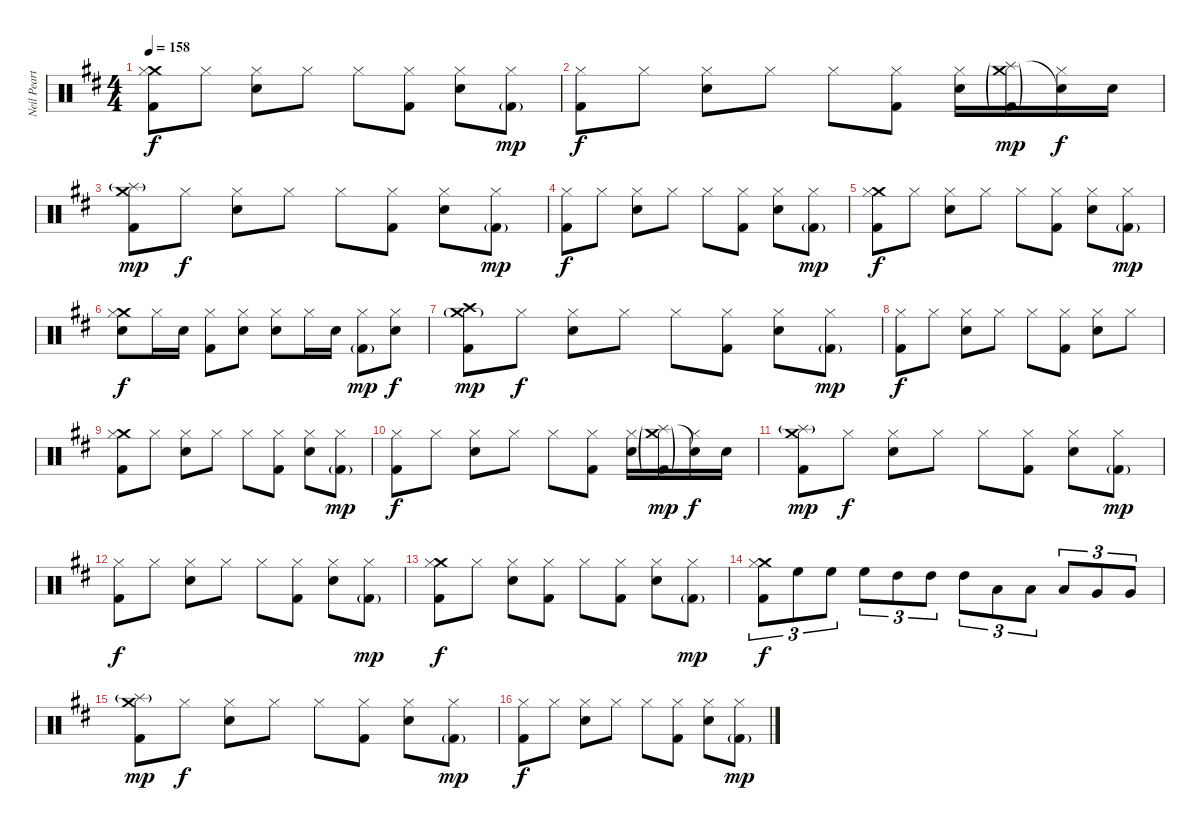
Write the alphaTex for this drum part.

\track ("Neil Peart (drums)" "Neil Peart") {instrument percussion}
\staff {score}
\articulation defaults
\ts (4 4)
\tempo 158
\clef neutral
\ks bminor
("Crash medium (hit)" "Hi-Hat (closed)" "Kick (hit) 2").8{dy f} "Hi-Hat (closed)".8 ("Hi-Hat (closed)" "Electric Snare (hit)").8 "Hi-Hat (closed)".8 "Hi-Hat (closed)".8 ("Hi-Hat (closed)" "Kick (hit) 2").8 ("Hi-Hat (closed)" "Electric Snare (hit)").8 ("Hi-Hat (closed)" "Kick (hit) 2"{g}).8{dy mp} |
("Hi-Hat (closed)" "Kick (hit) 2").8{dy f} "Hi-Hat (closed)".8 ("Hi-Hat (closed)" "Electric Snare (hit)").8 "Hi-Hat (closed)".8 "Hi-Hat (closed)".8 ("Hi-Hat (closed)" "Kick (hit) 2").8 ("Hi-Hat (closed)" "Electric Snare (hit)").16 ("Crash medium (hit)"{g} "Splash (hit)"{g} "Kick (hit) 2"{g}).16{dy mp} ("Hi-Hat (closed)" "Snare (hit)"{t}).16{dy f} "Electric Snare (hit)".16 |
("Crash medium (hit)" "Splash (hit)"{g} "Kick (hit) 2").8{dy mp} "Hi-Hat (closed)".8{dy f} ("Hi-Hat (closed)" "Electric Snare (hit)").8 "Hi-Hat (closed)".8 "Hi-Hat (closed)".8 ("Hi-Hat (closed)" "Kick (hit) 2").8 ("Hi-Hat (closed)" "Electric Snare (hit)").8 ("Hi-Hat (closed)" "Kick (hit) 2"{g}).8{dy mp} |
("Hi-Hat (closed)" "Kick (hit) 2").8{dy f} "Hi-Hat (closed)".8 ("Hi-Hat (closed)" "Electric Snare (hit)").8 "Hi-Hat (closed)".8 "Hi-Hat (closed)".8 ("Hi-Hat (closed)" "Kick (hit) 2").8 ("Hi-Hat (closed)" "Electric Snare (hit)").8 ("Hi-Hat (closed)" "Kick (hit) 2"{g}).8{dy mp} |
("Crash medium (hit)" "Hi-Hat (closed)" "Kick (hit) 2").8{dy f} "Hi-Hat (closed)".8 ("Hi-Hat (closed)" "Electric Snare (hit)").8 "Hi-Hat (closed)".8 "Hi-Hat (closed)".8 ("Hi-Hat (closed)" "Kick (hit) 2").8 ("Hi-Hat (closed)" "Electric Snare (hit)").8 ("Hi-Hat (closed)" "Kick (hit) 2"{g}).8{dy mp} |
("Crash medium (hit)" "Hi-Hat (closed)" "Electric Snare (hit)").8{dy f} "Hi-Hat (closed)".16 "Electric Snare (hit)".16 ("Hi-Hat (closed)" "Kick (hit) 2").8 ("Hi-Hat (closed)" "Electric Snare (hit)").8 ("Hi-Hat (closed)" "Electric Snare (hit)").8 "Hi-Hat (closed)".16 "Electric Snare (hit)".16 ("Hi-Hat (closed)" "Kick (hit) 2"{g}).8{dy mp} ("Hi-Hat (closed)" "Electric Snare (hit)").8{dy f} |
("Crash medium (hit)"{g} "Crash high (hit)" "Kick (hit) 2").8{dy mp} "Hi-Hat (closed)".8{dy f} ("Hi-Hat (closed)" "Electric Snare (hit)").8 "Hi-Hat (closed)".8 "Hi-Hat (closed)".8 ("Hi-Hat (closed)" "Kick (hit) 2").8 ("Hi-Hat (closed)" "Electric Snare (hit)").8 ("Hi-Hat (closed)" "Kick (hit) 2"{g}).8{dy mp} |
("Hi-Hat (closed)" "Kick (hit) 2").8{dy f} "Hi-Hat (closed)".8 ("Hi-Hat (closed)" "Electric Snare (hit)").8 "Hi-Hat (closed)".8 "Hi-Hat (closed)".8 ("Hi-Hat (closed)" "Kick (hit) 2").8 ("Hi-Hat (closed)" "Electric Snare (hit)").8 "Hi-Hat (closed)".8 |
("Crash medium (hit)" "Hi-Hat (closed)" "Kick (hit) 2").8 "Hi-Hat (closed)".8 ("Hi-Hat (closed)" "Electric Snare (hit)").8 "Hi-Hat (closed)".8 "Hi-Hat (closed)".8 ("Hi-Hat (closed)" "Kick (hit) 2").8 ("Hi-Hat (closed)" "Electric Snare (hit)").8 ("Hi-Hat (closed)" "Kick (hit) 2"{g}).8{dy mp} |
("Hi-Hat (closed)" "Kick (hit) 2").8{dy f} "Hi-Hat (closed)".8 ("Hi-Hat (closed)" "Electric Snare (hit)").8 "Hi-Hat (closed)".8 "Hi-Hat (closed)".8 ("Hi-Hat (closed)" "Kick (hit) 2").8 ("Hi-Hat (closed)" "Electric Snare (hit)").16 ("Crash medium (hit)"{g} "Splash (hit)"{g} "Kick (hit) 2"{g}).16{dy mp} ("Hi-Hat (closed)" "Snare (hit)"{t}).16{dy f} "Electric Snare (hit)".16 |
("Crash medium (hit)" "Splash (hit)"{g} "Kick (hit) 2").8{dy mp} "Hi-Hat (closed)".8{dy f} ("Hi-Hat (closed)" "Electric Snare (hit)").8 "Hi-Hat (closed)".8 "Hi-Hat (closed)".8 ("Hi-Hat (closed)" "Kick (hit) 2").8 ("Hi-Hat (closed)" "Electric Snare (hit)").8 ("Hi-Hat (closed)" "Kick (hit) 2"{g}).8{dy mp} |
("Hi-Hat (closed)" "Kick (hit) 2").8{dy f} "Hi-Hat (closed)".8 ("Hi-Hat (closed)" "Electric Snare (hit)").8 "Hi-Hat (closed)".8 "Hi-Hat (closed)".8 ("Hi-Hat (closed)" "Kick (hit) 2").8 ("Hi-Hat (closed)" "Electric Snare (hit)").8 ("Hi-Hat (closed)" "Kick (hit) 2"{g}).8{dy mp} |
("Crash medium (hit)" "Hi-Hat (closed)" "Kick (hit) 2").8{dy f} "Hi-Hat (closed)".8 ("Hi-Hat (closed)" "Electric Snare (hit)").8 ("Hi-Hat (closed)" "Kick (hit) 2").8 "Hi-Hat (closed)".8 ("Hi-Hat (closed)" "Kick (hit) 2").8 ("Hi-Hat (closed)" "Electric Snare (hit)").8 ("Hi-Hat (closed)" "Kick (hit) 2"{g}).8{dy mp} |
("Crash medium (hit)" "Hi-Hat (closed)" "Kick (hit) 2").8{tu (3 2) dy f} "High Floor Tom (hit)".8{tu (3 2)} "High Floor Tom (hit)".8{tu (3 2)} "High Floor Tom (hit)".8{tu (3 2)} "High Tom (hit)".8{tu (3 2)} "High Tom (hit)".8{tu (3 2)} "High Tom (hit)".8{tu (3 2)} "Low Tom (hit)".8{tu (3 2)} "Low Tom (hit)".8{tu (3 2)} "Low Tom (hit)".8{tu (3 2)} "Very Low Tom (hit)".8{tu (3 2)} "Very Low Tom (hit)".8{tu (3 2)} |
("Crash medium (hit)" "Splash (hit)"{g} "Kick (hit) 2").8{dy mp} "Hi-Hat (closed)".8{dy f} ("Hi-Hat (closed)" "Electric Snare (hit)").8 "Hi-Hat (closed)".8 "Hi-Hat (closed)".8 ("Hi-Hat (closed)" "Kick (hit) 2").8 ("Hi-Hat (closed)" "Electric Snare (hit)").8 ("Hi-Hat (closed)" "Kick (hit) 2"{g}).8{dy mp} |
("Hi-Hat (closed)" "Kick (hit) 2").8{dy f} "Hi-Hat (closed)".8 ("Hi-Hat (closed)" "Electric Snare (hit)").8 "Hi-Hat (closed)".8 "Hi-Hat (closed)".8 ("Hi-Hat (closed)" "Kick (hit) 2").8 ("Hi-Hat (closed)" "Electric Snare (hit)").8 ("Hi-Hat (closed)" "Kick (hit) 2"{g}).8{dy mp}
